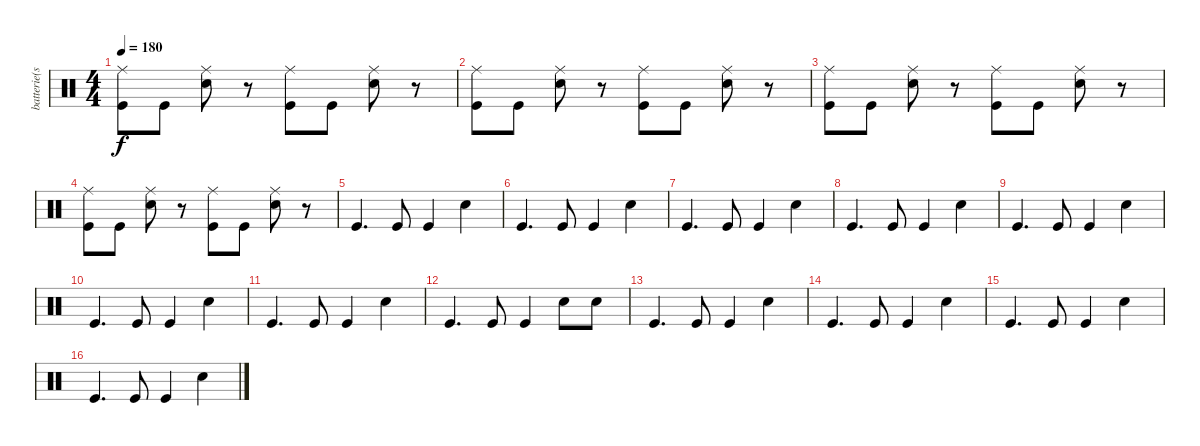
\track ("batterie(scott)" "batterie(s") {instrument percussion}
\staff {score}
\articulation defaults
\ts (4 4)
\tempo 180
\clef neutral
\ks c
("Ride (middle)" "Kick (hit)").8{dy f} "Kick (hit)".8 ("Ride (middle)" "Snare (hit) 2").8 r.8 ("Ride (middle)" "Kick (hit)").8 "Kick (hit)".8 ("Ride (middle)" "Snare (hit) 2").8 r.8 |
("Ride (middle)" "Kick (hit)").8 "Kick (hit)".8 ("Ride (middle)" "Snare (hit) 2").8 r.8 ("Ride (middle)" "Kick (hit)").8 "Kick (hit)".8 ("Ride (middle)" "Snare (hit) 2").8 r.8 |
("Ride (middle)" "Kick (hit)").8 "Kick (hit)".8 ("Ride (middle)" "Snare (hit) 2").8 r.8 ("Ride (middle)" "Kick (hit)").8 "Kick (hit)".8 ("Ride (middle)" "Snare (hit) 2").8 r.8 |
("Ride (middle)" "Kick (hit)").8 "Kick (hit)".8 ("Ride (middle)" "Snare (hit) 2").8 r.8 ("Ride (middle)" "Kick (hit)").8 "Kick (hit)".8 ("Ride (middle)" "Snare (hit) 2").8 r.8 |
"Kick (hit)".4{d} "Kick (hit)".8 "Kick (hit)".4 "Snare (hit) 2".4 |
"Kick (hit)".4{d} "Kick (hit)".8 "Kick (hit)".4 "Snare (hit) 2".4 |
"Kick (hit)".4{d} "Kick (hit)".8 "Kick (hit)".4 "Snare (hit) 2".4 |
"Kick (hit)".4{d} "Kick (hit)".8 "Kick (hit)".4 "Snare (hit) 2".4 |
"Kick (hit)".4{d} "Kick (hit)".8 "Kick (hit)".4 "Snare (hit) 2".4 |
"Kick (hit)".4{d} "Kick (hit)".8 "Kick (hit)".4 "Snare (hit) 2".4 |
"Kick (hit)".4{d} "Kick (hit)".8 "Kick (hit)".4 "Snare (hit) 2".4 |
"Kick (hit)".4{d} "Kick (hit)".8 "Kick (hit)".4 "Snare (hit) 2".8 "Snare (hit) 2".8 |
"Kick (hit)".4{d} "Kick (hit)".8 "Kick (hit)".4 "Snare (hit) 2".4 |
"Kick (hit)".4{d} "Kick (hit)".8 "Kick (hit)".4 "Snare (hit) 2".4 |
"Kick (hit)".4{d} "Kick (hit)".8 "Kick (hit)".4 "Snare (hit) 2".4 |
"Kick (hit)".4{d} "Kick (hit)".8 "Kick (hit)".4 "Snare (hit) 2".4
